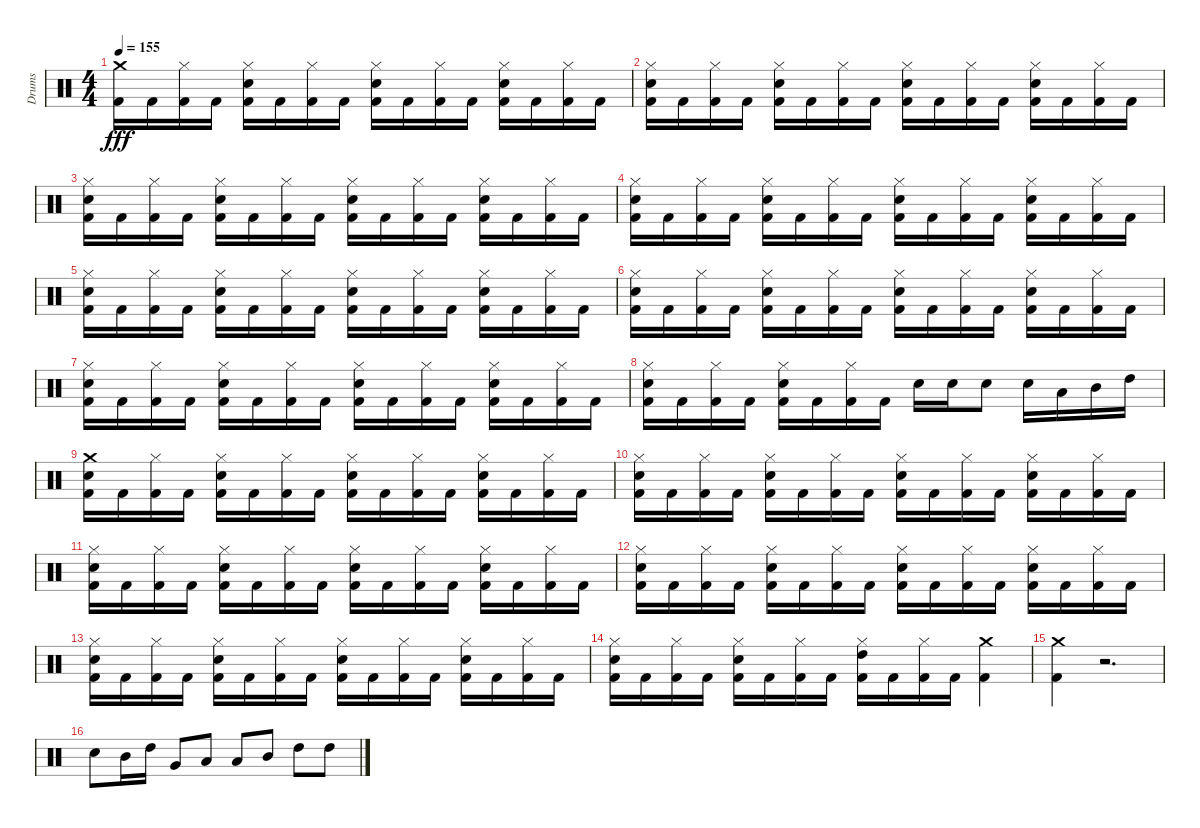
\track ("Drums" "Drums") {instrument percussion}
\staff {score}
\articulation defaults
\ts (4 4)
\tempo 155
\clef neutral
\ks c
("Crash medium (hit)" "Kick (hit) 2").16{dy fff} "Kick (hit) 2".16 ("Hi-Hat (closed)" "Kick (hit) 2").16 "Kick (hit) 2".16 ("Electric Snare (hit)" "Hi-Hat (closed)" "Kick (hit) 2").16 "Kick (hit) 2".16 ("Hi-Hat (closed)" "Kick (hit) 2").16 "Kick (hit) 2".16 ("Electric Snare (hit)" "Hi-Hat (closed)" "Kick (hit) 2").16 "Kick (hit) 2".16 ("Hi-Hat (closed)" "Kick (hit) 2").16 "Kick (hit) 2".16 ("Electric Snare (hit)" "Hi-Hat (closed)" "Kick (hit) 2").16 "Kick (hit) 2".16 ("Hi-Hat (closed)" "Kick (hit) 2").16 "Kick (hit) 2".16 |
("Electric Snare (hit)" "Hi-Hat (closed)" "Kick (hit) 2").16 "Kick (hit) 2".16 ("Hi-Hat (closed)" "Kick (hit) 2").16 "Kick (hit) 2".16 ("Electric Snare (hit)" "Hi-Hat (closed)" "Kick (hit) 2").16 "Kick (hit) 2".16 ("Hi-Hat (closed)" "Kick (hit) 2").16 "Kick (hit) 2".16 ("Electric Snare (hit)" "Hi-Hat (closed)" "Kick (hit) 2").16 "Kick (hit) 2".16 ("Hi-Hat (closed)" "Kick (hit) 2").16 "Kick (hit) 2".16 ("Electric Snare (hit)" "Hi-Hat (closed)" "Kick (hit) 2").16 "Kick (hit) 2".16 ("Hi-Hat (closed)" "Kick (hit) 2").16 "Kick (hit) 2".16 |
("Electric Snare (hit)" "Hi-Hat (closed)" "Kick (hit) 2").16 "Kick (hit) 2".16 ("Hi-Hat (closed)" "Kick (hit) 2").16 "Kick (hit) 2".16 ("Electric Snare (hit)" "Hi-Hat (closed)" "Kick (hit) 2").16 "Kick (hit) 2".16 ("Hi-Hat (closed)" "Kick (hit) 2").16 "Kick (hit) 2".16 ("Electric Snare (hit)" "Hi-Hat (closed)" "Kick (hit) 2").16 "Kick (hit) 2".16 ("Hi-Hat (closed)" "Kick (hit) 2").16 "Kick (hit) 2".16 ("Electric Snare (hit)" "Hi-Hat (closed)" "Kick (hit) 2").16 "Kick (hit) 2".16 ("Hi-Hat (closed)" "Kick (hit) 2").16 "Kick (hit) 2".16 |
("Electric Snare (hit)" "Hi-Hat (closed)" "Kick (hit) 2").16 "Kick (hit) 2".16 ("Hi-Hat (closed)" "Kick (hit) 2").16 "Kick (hit) 2".16 ("Electric Snare (hit)" "Hi-Hat (closed)" "Kick (hit) 2").16 "Kick (hit) 2".16 ("Hi-Hat (closed)" "Kick (hit) 2").16 "Kick (hit) 2".16 ("Electric Snare (hit)" "Hi-Hat (closed)" "Kick (hit) 2").16 "Kick (hit) 2".16 ("Hi-Hat (closed)" "Kick (hit) 2").16 "Kick (hit) 2".16 ("Electric Snare (hit)" "Hi-Hat (closed)" "Kick (hit) 2").16 "Kick (hit) 2".16 ("Hi-Hat (closed)" "Kick (hit) 2").16 "Kick (hit) 2".16 |
("Electric Snare (hit)" "Hi-Hat (closed)" "Kick (hit) 2").16 "Kick (hit) 2".16 ("Hi-Hat (closed)" "Kick (hit) 2").16 "Kick (hit) 2".16 ("Electric Snare (hit)" "Hi-Hat (closed)" "Kick (hit) 2").16 "Kick (hit) 2".16 ("Hi-Hat (closed)" "Kick (hit) 2").16 "Kick (hit) 2".16 ("Electric Snare (hit)" "Hi-Hat (closed)" "Kick (hit) 2").16 "Kick (hit) 2".16 ("Hi-Hat (closed)" "Kick (hit) 2").16 "Kick (hit) 2".16 ("Electric Snare (hit)" "Hi-Hat (closed)" "Kick (hit) 2").16 "Kick (hit) 2".16 ("Hi-Hat (closed)" "Kick (hit) 2").16 "Kick (hit) 2".16 |
("Electric Snare (hit)" "Hi-Hat (closed)" "Kick (hit) 2").16 "Kick (hit) 2".16 ("Hi-Hat (closed)" "Kick (hit) 2").16 "Kick (hit) 2".16 ("Electric Snare (hit)" "Hi-Hat (closed)" "Kick (hit) 2").16 "Kick (hit) 2".16 ("Hi-Hat (closed)" "Kick (hit) 2").16 "Kick (hit) 2".16 ("Electric Snare (hit)" "Hi-Hat (closed)" "Kick (hit) 2").16 "Kick (hit) 2".16 ("Hi-Hat (closed)" "Kick (hit) 2").16 "Kick (hit) 2".16 ("Electric Snare (hit)" "Hi-Hat (closed)" "Kick (hit) 2").16 "Kick (hit) 2".16 ("Hi-Hat (closed)" "Kick (hit) 2").16 "Kick (hit) 2".16 |
("Electric Snare (hit)" "Hi-Hat (closed)" "Kick (hit) 2").16 "Kick (hit) 2".16 ("Hi-Hat (closed)" "Kick (hit) 2").16 "Kick (hit) 2".16 ("Electric Snare (hit)" "Hi-Hat (closed)" "Kick (hit) 2").16 "Kick (hit) 2".16 ("Hi-Hat (closed)" "Kick (hit) 2").16 "Kick (hit) 2".16 ("Electric Snare (hit)" "Hi-Hat (closed)" "Kick (hit) 2").16 "Kick (hit) 2".16 ("Hi-Hat (closed)" "Kick (hit) 2").16 "Kick (hit) 2".16 ("Electric Snare (hit)" "Hi-Hat (closed)" "Kick (hit) 2").16 "Kick (hit) 2".16 ("Hi-Hat (closed)" "Kick (hit) 2").16 "Kick (hit) 2".16 |
("Electric Snare (hit)" "Hi-Hat (closed)" "Kick (hit) 2").16 "Kick (hit) 2".16 ("Hi-Hat (closed)" "Kick (hit) 2").16 "Kick (hit) 2".16 ("Electric Snare (hit)" "Hi-Hat (closed)" "Kick (hit) 2").16 "Kick (hit) 2".16 ("Hi-Hat (closed)" "Kick (hit) 2").16 "Kick (hit) 2".16 "Electric Snare (hit)".16 "Electric Snare (hit)".16 "Electric Snare (hit)".8 "Electric Snare (hit)".16 "Low Tom (hit)".16 "Mid Tom (hit)".16 "High Tom (hit)".16 |
("Electric Snare (hit)" "Crash medium (hit)" "Kick (hit) 2").16 "Kick (hit) 2".16 ("Hi-Hat (closed)" "Kick (hit) 2").16 "Kick (hit) 2".16 ("Electric Snare (hit)" "Hi-Hat (closed)" "Kick (hit) 2").16 "Kick (hit) 2".16 ("Hi-Hat (closed)" "Kick (hit) 2").16 "Kick (hit) 2".16 ("Electric Snare (hit)" "Hi-Hat (closed)" "Kick (hit) 2").16 "Kick (hit) 2".16 ("Hi-Hat (closed)" "Kick (hit) 2").16 "Kick (hit) 2".16 ("Electric Snare (hit)" "Hi-Hat (closed)" "Kick (hit) 2").16 "Kick (hit) 2".16 ("Hi-Hat (closed)" "Kick (hit) 2").16 "Kick (hit) 2".16 |
("Electric Snare (hit)" "Hi-Hat (closed)" "Kick (hit) 2").16 "Kick (hit) 2".16 ("Hi-Hat (closed)" "Kick (hit) 2").16 "Kick (hit) 2".16 ("Electric Snare (hit)" "Hi-Hat (closed)" "Kick (hit) 2").16 "Kick (hit) 2".16 ("Hi-Hat (closed)" "Kick (hit) 2").16 "Kick (hit) 2".16 ("Electric Snare (hit)" "Hi-Hat (closed)" "Kick (hit) 2").16 "Kick (hit) 2".16 ("Hi-Hat (closed)" "Kick (hit) 2").16 "Kick (hit) 2".16 ("Electric Snare (hit)" "Hi-Hat (closed)" "Kick (hit) 2").16 "Kick (hit) 2".16 ("Hi-Hat (closed)" "Kick (hit) 2").16 "Kick (hit) 2".16 |
("Electric Snare (hit)" "Hi-Hat (closed)" "Kick (hit) 2").16 "Kick (hit) 2".16 ("Hi-Hat (closed)" "Kick (hit) 2").16 "Kick (hit) 2".16 ("Electric Snare (hit)" "Hi-Hat (closed)" "Kick (hit) 2").16 "Kick (hit) 2".16 ("Hi-Hat (closed)" "Kick (hit) 2").16 "Kick (hit) 2".16 ("Electric Snare (hit)" "Hi-Hat (closed)" "Kick (hit) 2").16 "Kick (hit) 2".16 ("Hi-Hat (closed)" "Kick (hit) 2").16 "Kick (hit) 2".16 ("Electric Snare (hit)" "Hi-Hat (closed)" "Kick (hit) 2").16 "Kick (hit) 2".16 ("Hi-Hat (closed)" "Kick (hit) 2").16 "Kick (hit) 2".16 |
("Electric Snare (hit)" "Hi-Hat (closed)" "Kick (hit) 2").16 "Kick (hit) 2".16 ("Hi-Hat (closed)" "Kick (hit) 2").16 "Kick (hit) 2".16 ("Electric Snare (hit)" "Hi-Hat (closed)" "Kick (hit) 2").16 "Kick (hit) 2".16 ("Hi-Hat (closed)" "Kick (hit) 2").16 "Kick (hit) 2".16 ("Electric Snare (hit)" "Hi-Hat (closed)" "Kick (hit) 2").16 "Kick (hit) 2".16 ("Hi-Hat (closed)" "Kick (hit) 2").16 "Kick (hit) 2".16 ("Electric Snare (hit)" "Hi-Hat (closed)" "Kick (hit) 2").16 "Kick (hit) 2".16 ("Hi-Hat (closed)" "Kick (hit) 2").16 "Kick (hit) 2".16 |
("Electric Snare (hit)" "Hi-Hat (closed)" "Kick (hit) 2").16 "Kick (hit) 2".16 ("Hi-Hat (closed)" "Kick (hit) 2").16 "Kick (hit) 2".16 ("Electric Snare (hit)" "Hi-Hat (closed)" "Kick (hit) 2").16 "Kick (hit) 2".16 ("Hi-Hat (closed)" "Kick (hit) 2").16 "Kick (hit) 2".16 ("Electric Snare (hit)" "Hi-Hat (closed)" "Kick (hit) 2").16 "Kick (hit) 2".16 ("Hi-Hat (closed)" "Kick (hit) 2").16 "Kick (hit) 2".16 ("Electric Snare (hit)" "Hi-Hat (closed)" "Kick (hit) 2").16 "Kick (hit) 2".16 ("Hi-Hat (closed)" "Kick (hit) 2").16 "Kick (hit) 2".16 |
("Electric Snare (hit)" "Hi-Hat (closed)" "Kick (hit) 2").16 "Kick (hit) 2".16 ("Hi-Hat (closed)" "Kick (hit) 2").16 "Kick (hit) 2".16 ("Electric Snare (hit)" "Hi-Hat (closed)" "Kick (hit) 2").16 "Kick (hit) 2".16 ("Hi-Hat (closed)" "Kick (hit) 2").16 "Kick (hit) 2".16 ("Hi-Hat (closed)" "High Tom (hit)" "Kick (hit) 2").16 "Kick (hit) 2".16 ("Hi-Hat (closed)" "Kick (hit) 2").16 "Kick (hit) 2".16 ("Crash medium (hit)" "Kick (hit) 2").4 |
("Crash medium (hit)" "Kick (hit) 2").4 r.2{d} |
"Electric Snare (hit)".8 "Mid Tom (hit)".16 "High Tom (hit)".16 "Very Low Tom (hit)".8 "Low Floor Tom (hit)".8 "Low Tom (hit)".8 "Mid Tom (hit)".8 "High Tom (hit)".8 "High Tom (hit)".8
